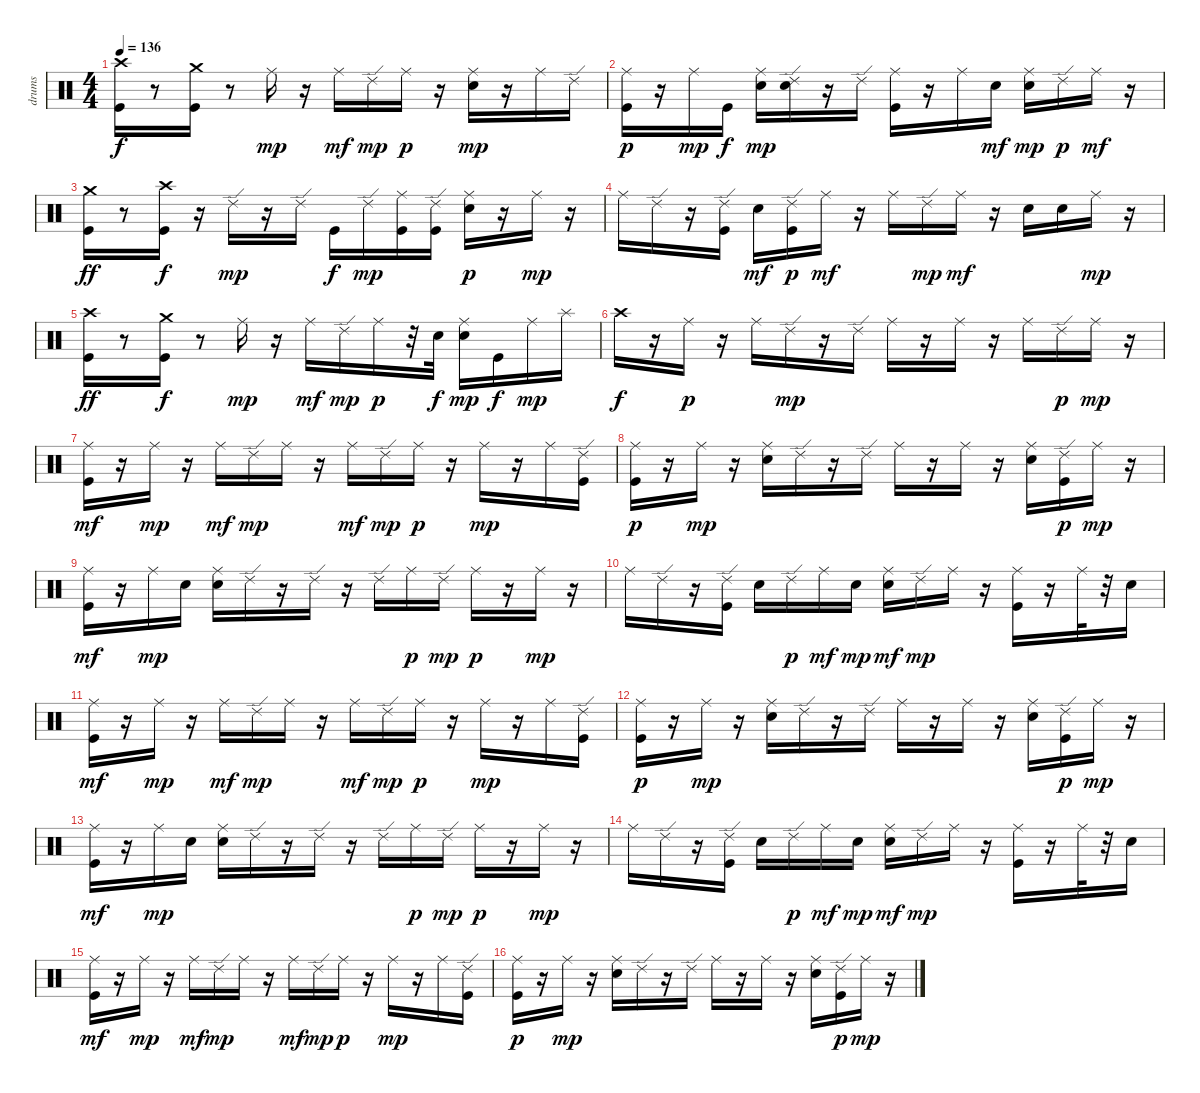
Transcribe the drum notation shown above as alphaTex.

\track ("drums   " "drums   ") {instrument percussion}
\staff {score}
\articulation defaults
\ts (4 4)
\tempo 136
\clef neutral
\ks c
("Kick (hit)" "Crash high (hit)").16{dy f} r.8 ("Kick (hit)" "Crash medium (hit)").16 r.8 "Ride (middle)".16{dy mp} r.16 "Ride (middle)".16{dy mf} "Ride (edge) 2".16{dy mp} "Ride (middle)".16{dy p} r.16 ("Electric Snare (hit)" "Ride (middle)").16{dy mp} r.16 "Ride (middle)".16 "Ride (edge) 2".16 |
("Kick (hit)" "Ride (middle)").16{dy p} r.16 "Ride (middle)".16{dy mp} "Kick (hit)".16{dy f} ("Electric Snare (hit)" "Ride (middle)").16{dy mp} ("Electric Snare (hit)" "Ride (edge) 2").16 r.16 "Ride (edge) 2".16 ("Kick (hit)" "Ride (middle)").16 r.16 "Ride (middle)".16 "Electric Snare (hit)".16{dy mf} ("Electric Snare (hit)" "Ride (middle)").16{dy mp} "Ride (edge) 2".16{dy p} "Ride (middle)".16{dy mf} r.16 |
("Kick (hit)" "Crash medium (hit)").16{dy ff} r.8 ("Kick (hit)" "Crash high (hit)").16{dy f} r.16 "Ride (edge) 2".16{dy mp} r.16 "Ride (edge) 2".16 "Kick (hit)".16{dy f} "Ride (edge) 2".16{dy mp} ("Kick (hit)" "Ride (middle)").16 ("Kick (hit)" "Ride (edge) 2").16 ("Electric Snare (hit)" "Ride (middle)").16{dy p} r.16 "Ride (middle)".16{dy mp} r.16 |
"Ride (middle)".16 "Ride (edge) 2".16 r.16 ("Kick (hit)" "Ride (edge) 2").16 "Electric Snare (hit)".16{dy mf} ("Kick (hit)" "Ride (edge) 2").16{dy p} "Ride (middle)".16{dy mf} r.16 "Ride (middle)".16 "Ride (edge) 2".16{dy mp} "Ride (middle)".16{dy mf} r.16 "Electric Snare (hit)".16 "Electric Snare (hit)".16 "Ride (middle)".16{dy mp} r.16 |
("Kick (hit)" "Crash high (hit)").16{dy ff} r.8 ("Kick (hit)" "Crash medium (hit)").16{dy f} r.8 "Ride (middle)".16{dy mp} r.16 "Ride (middle)".16{dy mf} "Ride (edge) 2".16{dy mp} "Ride (middle)".16{dy p} r.32 "Electric Snare (hit)".32{dy f} ("Electric Snare (hit)" "Ride (middle)").16{dy mp} "Kick (hit)".16{dy f} "Ride (middle)".16{dy mp} "Splash (hit)".16 |
"Crash high (hit)".16{dy f} r.16 "Ride (middle)".16{dy p} r.16 "Ride (middle)".16 "Ride (edge) 2".16{dy mp} r.16 "Ride (edge) 2".16 "Ride (middle)".16 r.16 "Ride (middle)".16 r.16 "Ride (middle)".16 "Ride (edge) 2".16{dy p} "Ride (middle)".16{dy mp} r.16 |
("Kick (hit)" "Ride (middle)").16{dy mf} r.16 "Ride (middle)".16{dy mp} r.16 "Ride (middle)".16{dy mf} "Ride (edge) 2".16{dy mp} "Ride (middle)".16 r.16 "Ride (middle)".16{dy mf} "Ride (edge) 2".16{dy mp} "Ride (middle)".16{dy p} r.16 "Ride (middle)".16{dy mp} r.16 "Ride (middle)".16 ("Kick (hit)" "Ride (edge) 2").16 |
("Kick (hit)" "Ride (middle)").16{dy p} r.16 "Ride (middle)".16{dy mp} r.16 ("Electric Snare (hit)" "Ride (middle)").16 "Ride (edge) 2".16 r.16 "Ride (edge) 2".16 "Ride (middle)".16 r.16 "Ride (middle)".16 r.16 ("Electric Snare (hit)" "Ride (middle)").16 ("Kick (hit)" "Ride (edge) 2").16{dy p} "Ride (middle)".16{dy mp} r.16 |
("Kick (hit)" "Ride (middle)").16{dy mf} r.16 "Ride (middle)".16{dy mp} "Electric Snare (hit)".16 ("Electric Snare (hit)" "Ride (middle)").16 "Ride (edge) 2".16 r.16 "Ride (edge) 2".16 r.16 "Ride (edge) 2".16 "Ride (middle)".16{dy p} "Ride (edge) 2".16{dy mp} "Ride (middle)".16{dy p} r.16 "Ride (middle)".16{dy mp} r.16 |
"Ride (middle)".16 "Ride (edge) 2".16 r.16 ("Kick (hit)" "Ride (edge) 2").16 "Electric Snare (hit)".16 "Ride (edge) 2".16{dy p} "Ride (middle)".16{dy mf} "Electric Snare (hit)".16{dy mp} ("Electric Snare (hit)" "Ride (middle)").16{dy mf} "Ride (edge) 2".16{dy mp} "Ride (middle)".16 r.16 ("Kick (hit)" "Ride (middle)").16 r.16 "Ride (middle)".32 r.32 "Electric Snare (hit)".16 |
("Kick (hit)" "Ride (middle)").16{dy mf} r.16 "Ride (middle)".16{dy mp} r.16 "Ride (middle)".16{dy mf} "Ride (edge) 2".16{dy mp} "Ride (middle)".16 r.16 "Ride (middle)".16{dy mf} "Ride (edge) 2".16{dy mp} "Ride (middle)".16{dy p} r.16 "Ride (middle)".16{dy mp} r.16 "Ride (middle)".16 ("Kick (hit)" "Ride (edge) 2").16 |
("Kick (hit)" "Ride (middle)").16{dy p} r.16 "Ride (middle)".16{dy mp} r.16 ("Electric Snare (hit)" "Ride (middle)").16 "Ride (edge) 2".16 r.16 "Ride (edge) 2".16 "Ride (middle)".16 r.16 "Ride (middle)".16 r.16 ("Electric Snare (hit)" "Ride (middle)").16 ("Kick (hit)" "Ride (edge) 2").16{dy p} "Ride (middle)".16{dy mp} r.16 |
("Kick (hit)" "Ride (middle)").16{dy mf} r.16 "Ride (middle)".16{dy mp} "Electric Snare (hit)".16 ("Electric Snare (hit)" "Ride (middle)").16 "Ride (edge) 2".16 r.16 "Ride (edge) 2".16 r.16 "Ride (edge) 2".16 "Ride (middle)".16{dy p} "Ride (edge) 2".16{dy mp} "Ride (middle)".16{dy p} r.16 "Ride (middle)".16{dy mp} r.16 |
"Ride (middle)".16 "Ride (edge) 2".16 r.16 ("Kick (hit)" "Ride (edge) 2").16 "Electric Snare (hit)".16 "Ride (edge) 2".16{dy p} "Ride (middle)".16{dy mf} "Electric Snare (hit)".16{dy mp} ("Electric Snare (hit)" "Ride (middle)").16{dy mf} "Ride (edge) 2".16{dy mp} "Ride (middle)".16 r.16 ("Kick (hit)" "Ride (middle)").16 r.16 "Ride (middle)".32 r.32 "Electric Snare (hit)".16 |
("Kick (hit)" "Ride (middle)").16{dy mf} r.16 "Ride (middle)".16{dy mp} r.16 "Ride (middle)".16{dy mf} "Ride (edge) 2".16{dy mp} "Ride (middle)".16 r.16 "Ride (middle)".16{dy mf} "Ride (edge) 2".16{dy mp} "Ride (middle)".16{dy p} r.16 "Ride (middle)".16{dy mp} r.16 "Ride (middle)".16 ("Kick (hit)" "Ride (edge) 2").16 |
("Kick (hit)" "Ride (middle)").16{dy p} r.16 "Ride (middle)".16{dy mp} r.16 ("Electric Snare (hit)" "Ride (middle)").16 "Ride (edge) 2".16 r.16 "Ride (edge) 2".16 "Ride (middle)".16 r.16 "Ride (middle)".16 r.16 ("Electric Snare (hit)" "Ride (middle)").16 ("Kick (hit)" "Ride (edge) 2").16{dy p} "Ride (middle)".16{dy mp} r.16
